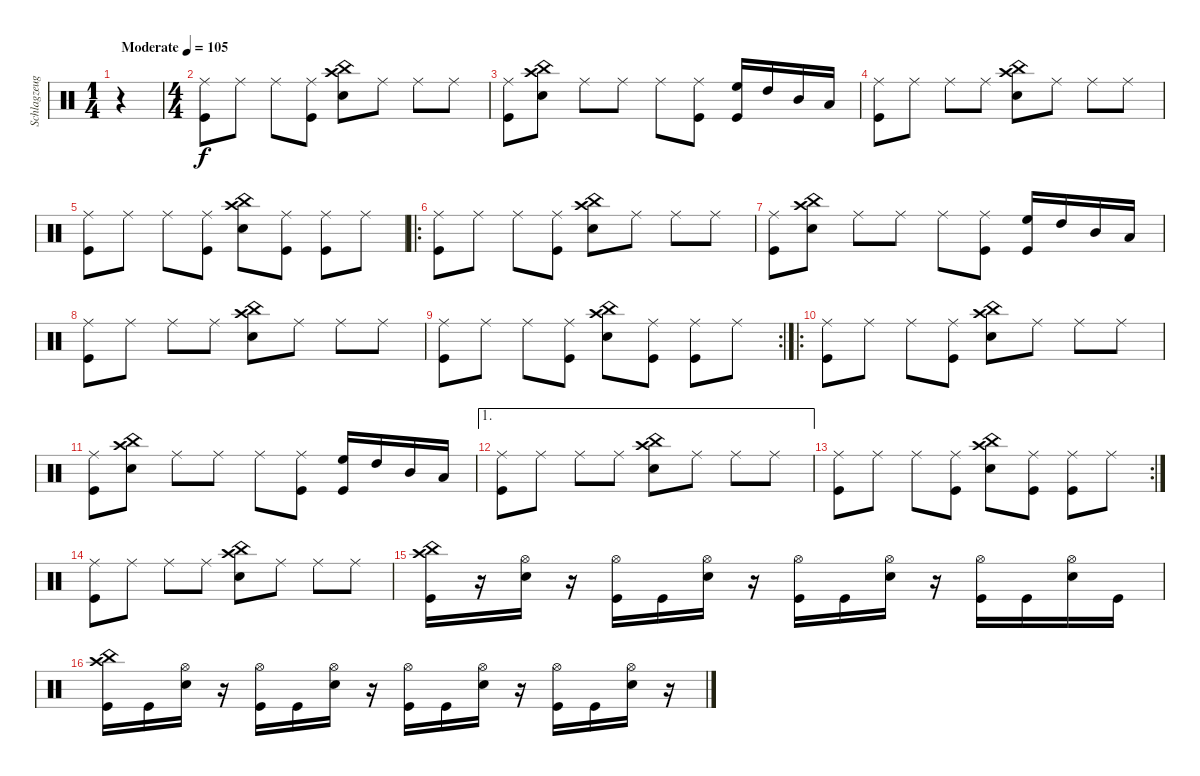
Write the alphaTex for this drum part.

\track ("Schlagzeug" "Schlagzeug") {instrument percussion}
\staff {score}
\articulation defaults
\ts (1 4)
\tempo (105 "Moderate")
\clef neutral
\ks c
r.4{dy f} |
\ts (4 4)
("Ride (middle)" "Kick (hit)").8 "Ride (middle)".8 "Ride (middle)".8 ("Ride (middle)" "Kick (hit)").8 ("China (hit)" "Crash high (hit)" "Snare (hit) 2").8 "Ride (middle)".8 "Ride (middle)".8 "Ride (middle)".8 |
("Ride (middle)" "Kick (hit)").8 ("China (hit)" "Crash high (hit)" "Snare (hit) 2").8 "Ride (middle)".8 "Ride (middle)".8 "Ride (middle)".8 ("Ride (middle)" "Kick (hit)").8 ("High Floor Tom (hit)" "Kick (hit)").16 "High Tom (hit)".16 "Mid Tom (hit)".16 "Low Tom (hit)".16 |
("Ride (middle)" "Kick (hit)").8 "Ride (middle)".8 "Ride (middle)".8 "Ride (middle)".8 ("China (hit)" "Crash high (hit)" "Snare (hit) 2").8 "Ride (middle)".8 "Ride (middle)".8 "Ride (middle)".8 |
("Ride (middle)" "Kick (hit)").8 "Ride (middle)".8 "Ride (middle)".8 ("Ride (middle)" "Kick (hit)").8 ("China (hit)" "Crash high (hit)" "Snare (hit) 2").8 ("Ride (middle)" "Kick (hit)").8 ("Ride (middle)" "Kick (hit)").8 "Ride (middle)".8 |
\ro
("Ride (middle)" "Kick (hit)").8 "Ride (middle)".8 "Ride (middle)".8 ("Ride (middle)" "Kick (hit)").8 ("China (hit)" "Crash high (hit)" "Snare (hit) 2").8 "Ride (middle)".8 "Ride (middle)".8 "Ride (middle)".8 |
("Ride (middle)" "Kick (hit)").8 ("China (hit)" "Crash high (hit)" "Snare (hit) 2").8 "Ride (middle)".8 "Ride (middle)".8 "Ride (middle)".8 ("Ride (middle)" "Kick (hit)").8 ("High Floor Tom (hit)" "Kick (hit)").16 "High Tom (hit)".16 "Mid Tom (hit)".16 "Low Tom (hit)".16 |
("Ride (middle)" "Kick (hit)").8 "Ride (middle)".8 "Ride (middle)".8 "Ride (middle)".8 ("China (hit)" "Crash high (hit)" "Snare (hit) 2").8 "Ride (middle)".8 "Ride (middle)".8 "Ride (middle)".8 |
\rc 2
("Ride (middle)" "Kick (hit)").8 "Ride (middle)".8 "Ride (middle)".8 ("Ride (middle)" "Kick (hit)").8 ("China (hit)" "Crash high (hit)" "Snare (hit) 2").8 ("Ride (middle)" "Kick (hit)").8 ("Ride (middle)" "Kick (hit)").8 "Ride (middle)".8 |
\ro
("Ride (middle)" "Kick (hit)").8 "Ride (middle)".8 "Ride (middle)".8 ("Ride (middle)" "Kick (hit)").8 ("China (hit)" "Crash high (hit)" "Snare (hit) 2").8 "Ride (middle)".8 "Ride (middle)".8 "Ride (middle)".8 |
("Ride (middle)" "Kick (hit)").8 ("China (hit)" "Crash high (hit)" "Snare (hit) 2").8 "Ride (middle)".8 "Ride (middle)".8 "Ride (middle)".8 ("Ride (middle)" "Kick (hit)").8 ("High Floor Tom (hit)" "Kick (hit)").16 "High Tom (hit)".16 "Mid Tom (hit)".16 "Low Tom (hit)".16 |
\ae 1
("Ride (middle)" "Kick (hit)").8 "Ride (middle)".8 "Ride (middle)".8 "Ride (middle)".8 ("China (hit)" "Crash high (hit)" "Snare (hit) 2").8 "Ride (middle)".8 "Ride (middle)".8 "Ride (middle)".8 |
\rc 2
("Ride (middle)" "Kick (hit)").8 "Ride (middle)".8 "Ride (middle)".8 ("Ride (middle)" "Kick (hit)").8 ("China (hit)" "Crash high (hit)" "Snare (hit) 2").8 ("Ride (middle)" "Kick (hit)").8 ("Ride (middle)" "Kick (hit)").8 "Ride (middle)".8 |
("Ride (middle)" "Kick (hit)").8 "Ride (middle)".8 "Ride (middle)".8 "Ride (middle)".8 ("China (hit)" "Crash high (hit)" "Snare (hit) 2").8 "Ride (middle)".8 "Ride (middle)".8 "Ride (middle)".8 |
("Crash high (hit)" "China (hit)" "Kick (hit)").16 r.16 ("Hi-Hat (open)" "Snare (hit) 2").16 r.16 ("Hi-Hat (open)" "Kick (hit)").16 "Kick (hit)".16 ("Hi-Hat (open)" "Snare (hit) 2").16 r.16 ("Hi-Hat (open)" "Kick (hit)").16 "Kick (hit)".16 ("Hi-Hat (open)" "Snare (hit) 2").16 r.16 ("Hi-Hat (open)" "Kick (hit)").16 "Kick (hit)".16 ("Hi-Hat (open)" "Snare (hit) 2").16 "Kick (hit)".16 |
("Crash high (hit)" "China (hit)" "Kick (hit)").16 "Kick (hit)".16 ("Hi-Hat (open)" "Snare (hit) 2").16 r.16 ("Hi-Hat (open)" "Kick (hit)").16 "Kick (hit)".16 ("Hi-Hat (open)" "Snare (hit) 2").16 r.16 ("Hi-Hat (open)" "Kick (hit)").16 "Kick (hit)".16 ("Hi-Hat (open)" "Snare (hit) 2").16 r.16 ("Hi-Hat (open)" "Kick (hit)").16 "Kick (hit)".16 ("Hi-Hat (open)" "Snare (hit) 2").16 r.16
